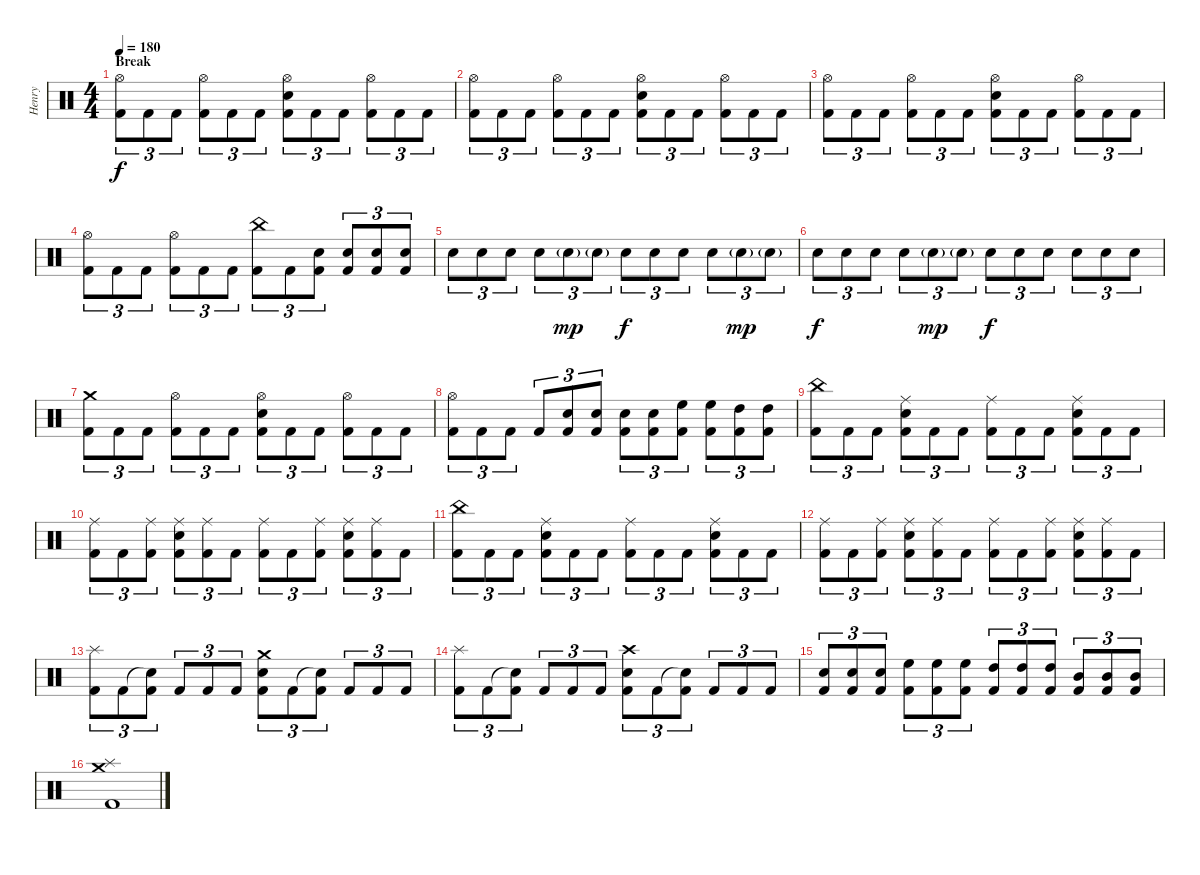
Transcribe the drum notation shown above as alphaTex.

\track ("Henry" "Henry") {instrument percussion}
\staff {score}
\articulation defaults
\ts (4 4)
\section ("" "Break")
\tempo 180
\clef neutral
\ks c
("Hi-Hat (open)" "Kick (hit) 2").8{tu (3 2) dy f} "Kick (hit) 2".8{tu (3 2)} "Kick (hit) 2".8{tu (3 2)} ("Hi-Hat (open)" "Kick (hit) 2").8{tu (3 2)} "Kick (hit) 2".8{tu (3 2)} "Kick (hit) 2".8{tu (3 2)} ("Hi-Hat (open)" "Snare (hit) 2" "Kick (hit) 2").8{tu (3 2)} "Kick (hit) 2".8{tu (3 2)} "Kick (hit) 2".8{tu (3 2)} ("Hi-Hat (open)" "Kick (hit) 2").8{tu (3 2)} "Kick (hit) 2".8{tu (3 2)} "Kick (hit) 2".8{tu (3 2)} |
("Hi-Hat (open)" "Kick (hit) 2").8{tu (3 2)} "Kick (hit) 2".8{tu (3 2)} "Kick (hit) 2".8{tu (3 2)} ("Hi-Hat (open)" "Kick (hit) 2").8{tu (3 2)} "Kick (hit) 2".8{tu (3 2)} "Kick (hit) 2".8{tu (3 2)} ("Hi-Hat (open)" "Snare (hit) 2" "Kick (hit) 2").8{tu (3 2)} "Kick (hit) 2".8{tu (3 2)} "Kick (hit) 2".8{tu (3 2)} ("Hi-Hat (open)" "Kick (hit) 2").8{tu (3 2)} "Kick (hit) 2".8{tu (3 2)} "Kick (hit) 2".8{tu (3 2)} |
("Hi-Hat (open)" "Kick (hit) 2").8{tu (3 2)} "Kick (hit) 2".8{tu (3 2)} "Kick (hit) 2".8{tu (3 2)} ("Hi-Hat (open)" "Kick (hit) 2").8{tu (3 2)} "Kick (hit) 2".8{tu (3 2)} "Kick (hit) 2".8{tu (3 2)} ("Hi-Hat (open)" "Snare (hit) 2" "Kick (hit) 2").8{tu (3 2)} "Kick (hit) 2".8{tu (3 2)} "Kick (hit) 2".8{tu (3 2)} ("Hi-Hat (open)" "Kick (hit) 2").8{tu (3 2)} "Kick (hit) 2".8{tu (3 2)} "Kick (hit) 2".8{tu (3 2)} |
("Hi-Hat (open)" "Kick (hit) 2").8{tu (3 2)} "Kick (hit) 2".8{tu (3 2)} "Kick (hit) 2".8{tu (3 2)} ("Hi-Hat (open)" "Kick (hit) 2").8{tu (3 2)} "Kick (hit) 2".8{tu (3 2)} "Kick (hit) 2".8{tu (3 2)} ("China (hit)" "Kick (hit) 2").8{tu (3 2)} "Kick (hit) 2".8{tu (3 2)} ("Snare (hit) 2" "Kick (hit) 2").8{tu (3 2)} ("Snare (hit) 2" "Kick (hit) 2").8{tu (3 2)} ("Snare (hit) 2" "Kick (hit) 2").8{tu (3 2)} ("Snare (hit) 2" "Kick (hit) 2").8{tu (3 2)} |
"Snare (hit) 2".8{tu (3 2)} "Snare (hit) 2".8{tu (3 2)} "Snare (hit) 2".8{tu (3 2)} "Snare (hit) 2".8{tu (3 2)} "Snare (hit) 2"{g}.8{tu (3 2) dy mp} "Snare (hit) 2"{g}.8{tu (3 2)} "Snare (hit) 2".8{tu (3 2) dy f} "Snare (hit) 2".8{tu (3 2)} "Snare (hit) 2".8{tu (3 2)} "Snare (hit) 2".8{tu (3 2)} "Snare (hit) 2"{g}.8{tu (3 2) dy mp} "Snare (hit) 2"{g}.8{tu (3 2)} |
"Snare (hit) 2".8{tu (3 2) dy f} "Snare (hit) 2".8{tu (3 2)} "Snare (hit) 2".8{tu (3 2)} "Snare (hit) 2".8{tu (3 2)} "Snare (hit) 2"{g}.8{tu (3 2) dy mp} "Snare (hit) 2"{g}.8{tu (3 2)} "Snare (hit) 2".8{tu (3 2) dy f} "Snare (hit) 2".8{tu (3 2)} "Snare (hit) 2".8{tu (3 2)} "Snare (hit) 2".8{tu (3 2)} "Snare (hit) 2".8{tu (3 2)} "Snare (hit) 2".8{tu (3 2)} |
("Crash medium (hit)" "Kick (hit) 2").8{tu (3 2)} "Kick (hit) 2".8{tu (3 2)} "Kick (hit) 2".8{tu (3 2)} ("Hi-Hat (open)" "Kick (hit) 2").8{tu (3 2)} "Kick (hit) 2".8{tu (3 2)} "Kick (hit) 2".8{tu (3 2)} ("Hi-Hat (open)" "Snare (hit) 2" "Kick (hit) 2").8{tu (3 2)} "Kick (hit) 2".8{tu (3 2)} "Kick (hit) 2".8{tu (3 2)} ("Hi-Hat (open)" "Kick (hit) 2").8{tu (3 2)} "Kick (hit) 2".8{tu (3 2)} "Kick (hit) 2".8{tu (3 2)} |
("Hi-Hat (open)" "Kick (hit) 2").8{tu (3 2)} "Kick (hit) 2".8{tu (3 2)} "Kick (hit) 2".8{tu (3 2)} "Kick (hit) 2".8{tu (3 2)} ("Snare (hit) 2" "Kick (hit) 2").8{tu (3 2)} ("Snare (hit) 2" "Kick (hit) 2").8{tu (3 2)} ("Snare (hit) 2" "Kick (hit) 2").8{tu (3 2)} ("Snare (hit) 2" "Kick (hit) 2").8{tu (3 2)} ("High Floor Tom (hit)" "Kick (hit) 2").8{tu (3 2)} ("High Floor Tom (hit)" "Kick (hit) 2").8{tu (3 2)} ("High Tom (hit)" "Kick (hit) 2").8{tu (3 2)} ("High Tom (hit)" "Kick (hit) 2").8{tu (3 2)} |
("China (hit)" "Kick (hit) 2").8{tu (3 2)} "Kick (hit) 2".8{tu (3 2)} "Kick (hit) 2".8{tu (3 2)} ("Ride (middle)" "Snare (hit) 2" "Kick (hit) 2").8{tu (3 2)} "Kick (hit) 2".8{tu (3 2)} "Kick (hit) 2".8{tu (3 2)} ("Ride (middle)" "Kick (hit) 2").8{tu (3 2)} "Kick (hit) 2".8{tu (3 2)} "Kick (hit) 2".8{tu (3 2)} ("Ride (middle)" "Snare (hit) 2" "Kick (hit) 2").8{tu (3 2)} "Kick (hit) 2".8{tu (3 2)} "Kick (hit) 2".8{tu (3 2)} |
("Ride (middle)" "Kick (hit) 2").8{tu (3 2)} "Kick (hit) 2".8{tu (3 2)} ("Ride (middle)" "Kick (hit) 2").8{tu (3 2)} ("Ride (middle)" "Snare (hit) 2" "Kick (hit) 2").8{tu (3 2)} ("Ride (middle)" "Kick (hit) 2").8{tu (3 2)} "Kick (hit) 2".8{tu (3 2)} ("Ride (middle)" "Kick (hit) 2").8{tu (3 2)} "Kick (hit) 2".8{tu (3 2)} ("Ride (middle)" "Kick (hit) 2").8{tu (3 2)} ("Ride (middle)" "Snare (hit) 2" "Kick (hit) 2").8{tu (3 2)} ("Ride (middle)" "Kick (hit) 2").8{tu (3 2)} "Kick (hit) 2".8{tu (3 2)} |
("China (hit)" "Kick (hit) 2").8{tu (3 2)} "Kick (hit) 2".8{tu (3 2)} "Kick (hit) 2".8{tu (3 2)} ("Ride (middle)" "Snare (hit) 2" "Kick (hit) 2").8{tu (3 2)} "Kick (hit) 2".8{tu (3 2)} "Kick (hit) 2".8{tu (3 2)} ("Ride (middle)" "Kick (hit) 2").8{tu (3 2)} "Kick (hit) 2".8{tu (3 2)} "Kick (hit) 2".8{tu (3 2)} ("Ride (middle)" "Snare (hit) 2" "Kick (hit) 2").8{tu (3 2)} "Kick (hit) 2".8{tu (3 2)} "Kick (hit) 2".8{tu (3 2)} |
("Ride (middle)" "Kick (hit) 2").8{tu (3 2)} "Kick (hit) 2".8{tu (3 2)} ("Ride (middle)" "Kick (hit) 2").8{tu (3 2)} ("Ride (middle)" "Snare (hit) 2" "Kick (hit) 2").8{tu (3 2)} ("Ride (middle)" "Kick (hit) 2").8{tu (3 2)} "Kick (hit) 2".8{tu (3 2)} ("Ride (middle)" "Kick (hit) 2").8{tu (3 2)} "Kick (hit) 2".8{tu (3 2)} ("Ride (middle)" "Kick (hit) 2").8{tu (3 2)} ("Ride (middle)" "Snare (hit) 2" "Kick (hit) 2").8{tu (3 2)} ("Ride (middle)" "Kick (hit) 2").8{tu (3 2)} "Kick (hit) 2".8{tu (3 2)} |
("Splash (hit)" "Kick (hit) 2").8{tu (3 2)} "Kick (hit) 2".8{tu (3 2)} ("Snare (hit)"{t} "Kick (hit) 2").8{tu (3 2)} "Kick (hit) 2".8{tu (3 2)} "Kick (hit) 2".8{tu (3 2)} "Kick (hit) 2".8{tu (3 2)} ("Crash medium (hit)" "Snare (hit) 2" "Kick (hit) 2").8{tu (3 2)} "Kick (hit) 2".8{tu (3 2)} ("Snare (hit)"{t} "Kick (hit) 2").8{tu (3 2)} "Kick (hit) 2".8{tu (3 2)} "Kick (hit) 2".8{tu (3 2)} "Kick (hit) 2".8{tu (3 2)} |
("Splash (hit)" "Kick (hit) 2").8{tu (3 2)} "Kick (hit) 2".8{tu (3 2)} ("Snare (hit)"{t} "Kick (hit) 2").8{tu (3 2)} "Kick (hit) 2".8{tu (3 2)} "Kick (hit) 2".8{tu (3 2)} "Kick (hit) 2".8{tu (3 2)} ("Crash high (hit)" "Snare (hit) 2" "Kick (hit) 2").8{tu (3 2)} "Kick (hit) 2".8{tu (3 2)} ("Snare (hit)"{t} "Kick (hit) 2").8{tu (3 2)} "Kick (hit) 2".8{tu (3 2)} "Kick (hit) 2".8{tu (3 2)} "Kick (hit) 2".8{tu (3 2)} |
("Snare (hit) 2" "Kick (hit) 2").8{tu (3 2)} ("Snare (hit) 2" "Kick (hit) 2").8{tu (3 2)} ("Snare (hit) 2" "Kick (hit) 2").8{tu (3 2)} ("High Floor Tom (hit)" "Kick (hit) 2").8{tu (3 2)} ("High Floor Tom (hit)" "Kick (hit) 2").8{tu (3 2)} ("High Floor Tom (hit)" "Kick (hit) 2").8{tu (3 2)} ("High Tom (hit)" "Kick (hit) 2").8{tu (3 2)} ("High Tom (hit)" "Kick (hit) 2").8{tu (3 2)} ("High Tom (hit)" "Kick (hit) 2").8{tu (3 2)} ("Mid Tom (hit)" "Kick (hit) 2").8{tu (3 2)} ("Mid Tom (hit)" "Kick (hit) 2").8{tu (3 2)} ("Mid Tom (hit)" "Kick (hit) 2").8{tu (3 2)} |
("Splash (hit)" "Crash medium (hit)" "Kick (hit) 2").1
